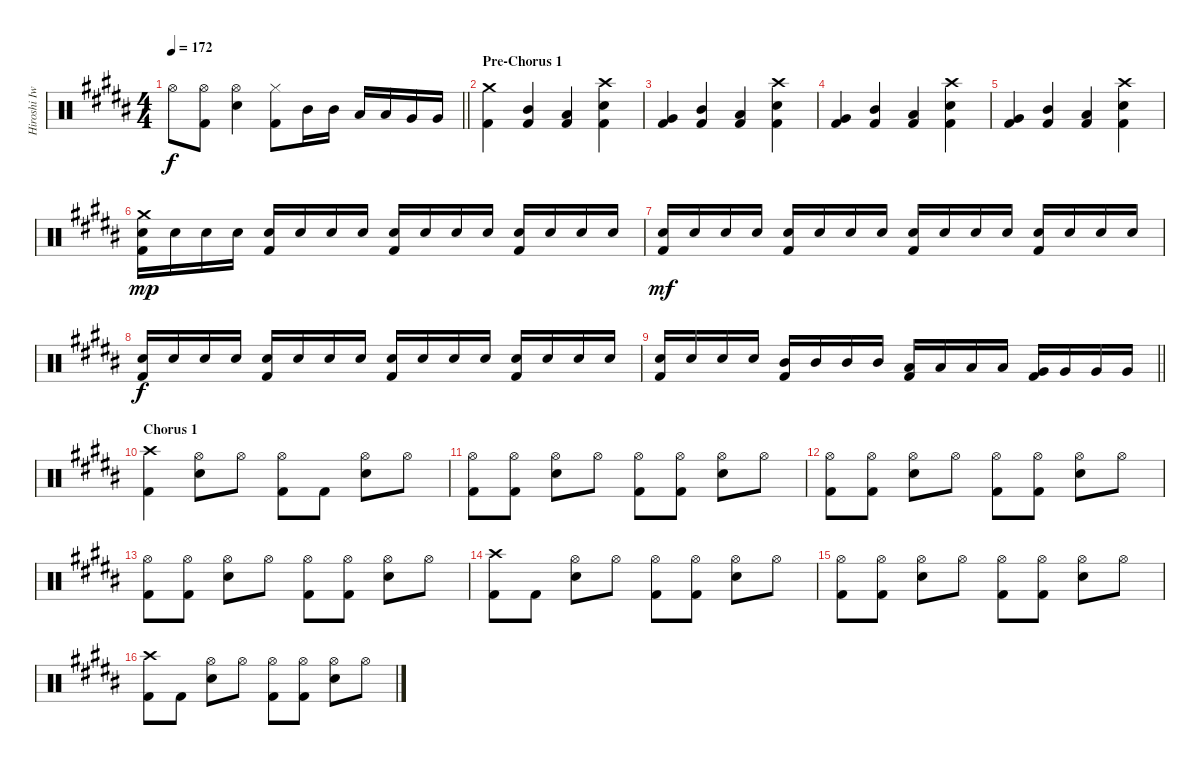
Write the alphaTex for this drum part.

\track ("Hiroshi Iwasaki - Drums" "Hiroshi Iw") {instrument percussion}
\staff {score}
\articulation defaults
\ts (4 4)
\tempo 172
\clef neutral
\barLineRight lightlight
\ks b "Hi-Hat (open)".8{dy f}
("Hi-Hat (open)" "Kick (hit) 2").8 ("Snare (hit) 2" "Hi-Hat (open)").4 ("Hi-Hat (closed)" "Kick (hit) 2").8 "Mid Tom (hit)".16 "Mid Tom (hit)".16 "Low Tom (hit)".16 "Low Tom (hit)".16 "Very Low Tom (hit)".16 "Very Low Tom (hit)".16 |
\section ("" "Pre-Chorus 1")
("Crash medium (hit)" "Kick (hit) 2").4 ("Mid Tom (hit)" "Kick (hit) 2").4 ("Low Tom (hit)" "Kick (hit) 2").4 ("Snare (hit) 2" "Crash high (hit)" "Kick (hit) 2").4 |
("Very Low Tom (hit)" "Kick (hit) 2").4 ("Mid Tom (hit)" "Kick (hit) 2").4 ("Low Tom (hit)" "Kick (hit) 2").4 ("Snare (hit) 2" "Crash high (hit)" "Kick (hit) 2").4 |
("Very Low Tom (hit)" "Kick (hit) 2").4 ("Mid Tom (hit)" "Kick (hit) 2").4 ("Low Tom (hit)" "Kick (hit) 2").4 ("Snare (hit) 2" "Crash high (hit)" "Kick (hit) 2").4 |
("Very Low Tom (hit)" "Kick (hit) 2").4 ("Mid Tom (hit)" "Kick (hit) 2").4 ("Low Tom (hit)" "Kick (hit) 2").4 ("Snare (hit) 2" "Crash high (hit)" "Kick (hit) 2").4 |
("Snare (hit) 2" "Crash medium (hit)" "Kick (hit) 2").16{dy mp} "Snare (hit) 2".16 "Snare (hit) 2".16 "Snare (hit) 2".16 ("Snare (hit) 2" "Kick (hit) 2").16 "Snare (hit) 2".16 "Snare (hit) 2".16 "Snare (hit) 2".16 ("Snare (hit) 2" "Kick (hit) 2").16 "Snare (hit) 2".16 "Snare (hit) 2".16 "Snare (hit) 2".16 ("Snare (hit) 2" "Kick (hit) 2").16 "Snare (hit) 2".16 "Snare (hit) 2".16 "Snare (hit) 2".16 |
("Snare (hit) 2" "Kick (hit) 2").16{dy mf} "Snare (hit) 2".16 "Snare (hit) 2".16 "Snare (hit) 2".16 ("Snare (hit) 2" "Kick (hit) 2").16 "Snare (hit) 2".16 "Snare (hit) 2".16 "Snare (hit) 2".16 ("Snare (hit) 2" "Kick (hit) 2").16 "Snare (hit) 2".16 "Snare (hit) 2".16 "Snare (hit) 2".16 ("Snare (hit) 2" "Kick (hit) 2").16 "Snare (hit) 2".16 "Snare (hit) 2".16 "Snare (hit) 2".16 |
("Snare (hit) 2" "Kick (hit) 2").16{dy f} "Snare (hit) 2".16 "Snare (hit) 2".16 "Snare (hit) 2".16 ("Snare (hit) 2" "Kick (hit) 2").16 "Snare (hit) 2".16 "Snare (hit) 2".16 "Snare (hit) 2".16 ("Snare (hit) 2" "Kick (hit) 2").16 "Snare (hit) 2".16 "Snare (hit) 2".16 "Snare (hit) 2".16 ("Snare (hit) 2" "Kick (hit) 2").16 "Snare (hit) 2".16 "Snare (hit) 2".16 "Snare (hit) 2".16 |
\barLineRight lightlight
("Snare (hit) 2" "Kick (hit) 2").16 "Snare (hit) 2".16 "Snare (hit) 2".16 "Snare (hit) 2".16 ("Mid Tom (hit)" "Kick (hit) 2").16 "Mid Tom (hit)".16 "Mid Tom (hit)".16 "Mid Tom (hit)".16 ("Low Tom (hit)" "Kick (hit) 2").16 "Low Tom (hit)".16 "Low Tom (hit)".16 "Low Tom (hit)".16 ("Very Low Tom (hit)" "Kick (hit) 2").16 "Very Low Tom (hit)".16 "Very Low Tom (hit)".16 "Very Low Tom (hit)".16 |
\section ("" "Chorus 1")
("Crash high (hit)" "Kick (hit) 2").4 ("Snare (hit) 2" "Hi-Hat (open)").8 "Hi-Hat (open)".8 ("Hi-Hat (open)" "Kick (hit) 2").8 "Kick (hit) 2".8 ("Snare (hit) 2" "Hi-Hat (open)").8 "Hi-Hat (open)".8 |
("Hi-Hat (open)" "Kick (hit) 2").8 ("Hi-Hat (open)" "Kick (hit) 2").8 ("Snare (hit) 2" "Hi-Hat (open)").8 "Hi-Hat (open)".8 ("Hi-Hat (open)" "Kick (hit) 2").8 ("Hi-Hat (open)" "Kick (hit) 2").8 ("Snare (hit) 2" "Hi-Hat (open)").8 "Hi-Hat (open)".8 |
("Hi-Hat (open)" "Kick (hit) 2").8 ("Hi-Hat (open)" "Kick (hit) 2").8 ("Snare (hit) 2" "Hi-Hat (open)").8 "Hi-Hat (open)".8 ("Hi-Hat (open)" "Kick (hit) 2").8 ("Hi-Hat (open)" "Kick (hit) 2").8 ("Snare (hit) 2" "Hi-Hat (open)").8 "Hi-Hat (open)".8 |
("Hi-Hat (open)" "Kick (hit) 2").8 ("Hi-Hat (open)" "Kick (hit) 2").8 ("Snare (hit) 2" "Hi-Hat (open)").8 "Hi-Hat (open)".8 ("Hi-Hat (open)" "Kick (hit) 2").8 ("Hi-Hat (open)" "Kick (hit) 2").8 ("Snare (hit) 2" "Hi-Hat (open)").8 "Hi-Hat (open)".8 |
("Crash high (hit)" "Kick (hit) 2").8 "Kick (hit) 2".8 ("Snare (hit) 2" "Hi-Hat (open)").8 "Hi-Hat (open)".8 ("Hi-Hat (open)" "Kick (hit) 2").8 ("Hi-Hat (open)" "Kick (hit) 2").8 ("Snare (hit) 2" "Hi-Hat (open)").8 "Hi-Hat (open)".8 |
("Hi-Hat (open)" "Kick (hit) 2").8 ("Hi-Hat (open)" "Kick (hit) 2").8 ("Snare (hit) 2" "Hi-Hat (open)").8 "Hi-Hat (open)".8 ("Hi-Hat (open)" "Kick (hit) 2").8 ("Hi-Hat (open)" "Kick (hit) 2").8 ("Snare (hit) 2" "Hi-Hat (open)").8 "Hi-Hat (open)".8 |
("Crash high (hit)" "Kick (hit) 2").8 "Kick (hit) 2".8 ("Snare (hit) 2" "Hi-Hat (open)").8 "Hi-Hat (open)".8 ("Hi-Hat (open)" "Kick (hit) 2").8 ("Hi-Hat (open)" "Kick (hit) 2").8 ("Snare (hit) 2" "Hi-Hat (open)").8 "Hi-Hat (open)".8
